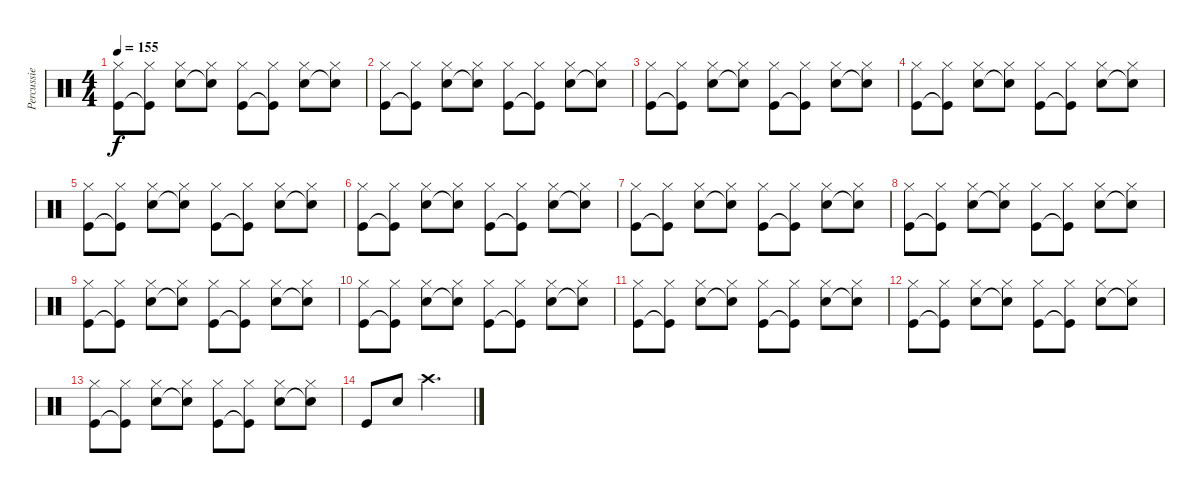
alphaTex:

\track ("Percussie" "Percussie") {instrument percussion}
\staff {score}
\articulation defaults
\ts (4 4)
\tempo 155
\clef neutral
\ks c
("Hi-Hat (closed)" "Kick (hit)").8{dy f} ("Hi-Hat (closed)" "Kick (hit)"{t}).8 ("Hi-Hat (closed)" "Snare (hit) 2").8 ("Hi-Hat (closed)" "Snare (hit) 2"{t}).8 ("Hi-Hat (closed)" "Kick (hit)").8 ("Hi-Hat (closed)" "Kick (hit)"{t}).8 ("Hi-Hat (closed)" "Snare (hit) 2").8 ("Hi-Hat (closed)" "Snare (hit) 2"{t}).8 |
("Hi-Hat (closed)" "Kick (hit)").8 ("Hi-Hat (closed)" "Kick (hit)"{t}).8 ("Hi-Hat (closed)" "Snare (hit) 2").8 ("Hi-Hat (closed)" "Snare (hit) 2"{t}).8 ("Hi-Hat (closed)" "Kick (hit)").8 ("Hi-Hat (closed)" "Kick (hit)"{t}).8 ("Hi-Hat (closed)" "Snare (hit) 2").8 ("Hi-Hat (closed)" "Snare (hit) 2"{t}).8 |
("Hi-Hat (closed)" "Kick (hit)").8 ("Hi-Hat (closed)" "Kick (hit)"{t}).8 ("Hi-Hat (closed)" "Snare (hit) 2").8 ("Hi-Hat (closed)" "Snare (hit) 2"{t}).8 ("Hi-Hat (closed)" "Kick (hit)").8 ("Hi-Hat (closed)" "Kick (hit)"{t}).8 ("Hi-Hat (closed)" "Snare (hit) 2").8 ("Hi-Hat (closed)" "Snare (hit) 2"{t}).8 |
("Hi-Hat (closed)" "Kick (hit)").8 ("Hi-Hat (closed)" "Kick (hit)"{t}).8 ("Hi-Hat (closed)" "Snare (hit) 2").8 ("Hi-Hat (closed)" "Snare (hit) 2"{t}).8 ("Hi-Hat (closed)" "Kick (hit)").8 ("Hi-Hat (closed)" "Kick (hit)"{t}).8 ("Hi-Hat (closed)" "Snare (hit) 2").8 ("Hi-Hat (closed)" "Snare (hit) 2"{t}).8 |
("Hi-Hat (closed)" "Kick (hit)").8 ("Hi-Hat (closed)" "Kick (hit)"{t}).8 ("Hi-Hat (closed)" "Snare (hit) 2").8 ("Hi-Hat (closed)" "Snare (hit) 2"{t}).8 ("Hi-Hat (closed)" "Kick (hit)").8 ("Hi-Hat (closed)" "Kick (hit)"{t}).8 ("Hi-Hat (closed)" "Snare (hit) 2").8 ("Hi-Hat (closed)" "Snare (hit) 2"{t}).8 |
("Hi-Hat (closed)" "Kick (hit)").8 ("Hi-Hat (closed)" "Kick (hit)"{t}).8 ("Hi-Hat (closed)" "Snare (hit) 2").8 ("Hi-Hat (closed)" "Snare (hit) 2"{t}).8 ("Hi-Hat (closed)" "Kick (hit)").8 ("Hi-Hat (closed)" "Kick (hit)"{t}).8 ("Hi-Hat (closed)" "Snare (hit) 2").8 ("Hi-Hat (closed)" "Snare (hit) 2"{t}).8 |
("Hi-Hat (closed)" "Kick (hit)").8 ("Hi-Hat (closed)" "Kick (hit)"{t}).8 ("Hi-Hat (closed)" "Snare (hit) 2").8 ("Hi-Hat (closed)" "Snare (hit) 2"{t}).8 ("Hi-Hat (closed)" "Kick (hit)").8 ("Hi-Hat (closed)" "Kick (hit)"{t}).8 ("Hi-Hat (closed)" "Snare (hit) 2").8 ("Hi-Hat (closed)" "Snare (hit) 2"{t}).8 |
("Hi-Hat (closed)" "Kick (hit)").8 ("Hi-Hat (closed)" "Kick (hit)"{t}).8 ("Hi-Hat (closed)" "Snare (hit) 2").8 ("Hi-Hat (closed)" "Snare (hit) 2"{t}).8 ("Hi-Hat (closed)" "Kick (hit)").8 ("Hi-Hat (closed)" "Kick (hit)"{t}).8 ("Hi-Hat (closed)" "Snare (hit) 2").8 ("Hi-Hat (closed)" "Snare (hit) 2"{t}).8 |
("Hi-Hat (closed)" "Kick (hit)").8 ("Hi-Hat (closed)" "Kick (hit)"{t}).8 ("Hi-Hat (closed)" "Snare (hit) 2").8 ("Hi-Hat (closed)" "Snare (hit) 2"{t}).8 ("Hi-Hat (closed)" "Kick (hit)").8 ("Hi-Hat (closed)" "Kick (hit)"{t}).8 ("Hi-Hat (closed)" "Snare (hit) 2").8 ("Hi-Hat (closed)" "Snare (hit) 2"{t}).8 |
("Hi-Hat (closed)" "Kick (hit)").8 ("Hi-Hat (closed)" "Kick (hit)"{t}).8 ("Hi-Hat (closed)" "Snare (hit) 2").8 ("Hi-Hat (closed)" "Snare (hit) 2"{t}).8 ("Hi-Hat (closed)" "Kick (hit)").8 ("Hi-Hat (closed)" "Kick (hit)"{t}).8 ("Hi-Hat (closed)" "Snare (hit) 2").8 ("Hi-Hat (closed)" "Snare (hit) 2"{t}).8 |
("Hi-Hat (closed)" "Kick (hit)").8 ("Hi-Hat (closed)" "Kick (hit)"{t}).8 ("Hi-Hat (closed)" "Snare (hit) 2").8 ("Hi-Hat (closed)" "Snare (hit) 2"{t}).8 ("Hi-Hat (closed)" "Kick (hit)").8 ("Hi-Hat (closed)" "Kick (hit)"{t}).8 ("Hi-Hat (closed)" "Snare (hit) 2").8 ("Hi-Hat (closed)" "Snare (hit) 2"{t}).8 |
("Hi-Hat (closed)" "Kick (hit)").8 ("Hi-Hat (closed)" "Kick (hit)"{t}).8 ("Hi-Hat (closed)" "Snare (hit) 2").8 ("Hi-Hat (closed)" "Snare (hit) 2"{t}).8 ("Hi-Hat (closed)" "Kick (hit)").8 ("Hi-Hat (closed)" "Kick (hit)"{t}).8 ("Hi-Hat (closed)" "Snare (hit) 2").8 ("Hi-Hat (closed)" "Snare (hit) 2"{t}).8 |
("Hi-Hat (closed)" "Kick (hit)").8 ("Hi-Hat (closed)" "Kick (hit)"{t}).8 ("Hi-Hat (closed)" "Snare (hit) 2").8 ("Hi-Hat (closed)" "Snare (hit) 2"{t}).8 ("Hi-Hat (closed)" "Kick (hit)").8 ("Hi-Hat (closed)" "Kick (hit)"{t}).8 ("Hi-Hat (closed)" "Snare (hit) 2").8 ("Hi-Hat (closed)" "Snare (hit) 2"{t}).8 |
"Kick (hit)".8 "Snare (hit) 2".8 "Crash high (hit)".2{d}
